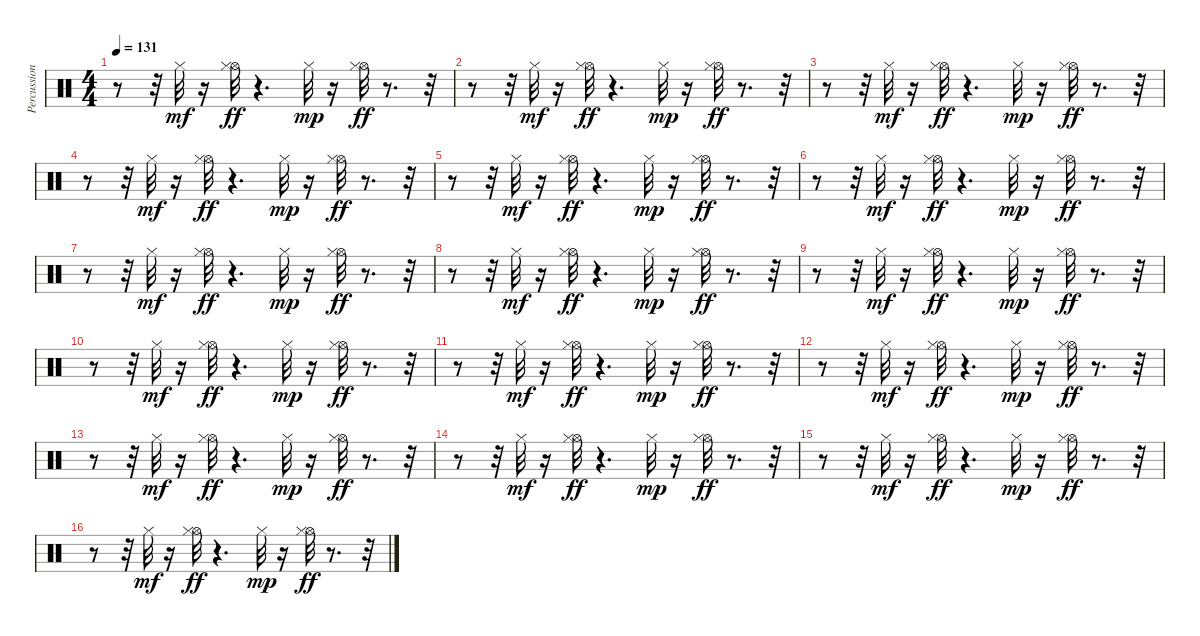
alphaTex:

\track ("Percussion" "Percussion") {instrument percussion}
\staff {score}
\articulation defaults
\ts (4 4)
\tempo 131
\clef neutral
\ks c
r.8{dy ff} r.32 "Hi-Hat (closed)".32{dy mf} r.16 ("Hi-Hat (open)" "Hi-Hat (closed)").32{dy ff} r.4{d} "Hi-Hat (closed)".32{dy mp} r.16 ("Hi-Hat (open)" "Hi-Hat (closed)").32{dy ff} r.8{d} r.32 |
r.8 r.32 "Hi-Hat (closed)".32{dy mf} r.16 ("Hi-Hat (open)" "Hi-Hat (closed)").32{dy ff} r.4{d} "Hi-Hat (closed)".32{dy mp} r.16 ("Hi-Hat (open)" "Hi-Hat (closed)").32{dy ff} r.8{d} r.32 |
r.8 r.32 "Hi-Hat (closed)".32{dy mf} r.16 ("Hi-Hat (open)" "Hi-Hat (closed)").32{dy ff} r.4{d} "Hi-Hat (closed)".32{dy mp} r.16 ("Hi-Hat (open)" "Hi-Hat (closed)").32{dy ff} r.8{d} r.32 |
r.8 r.32 "Hi-Hat (closed)".32{dy mf} r.16 ("Hi-Hat (open)" "Hi-Hat (closed)").32{dy ff} r.4{d} "Hi-Hat (closed)".32{dy mp} r.16 ("Hi-Hat (open)" "Hi-Hat (closed)").32{dy ff} r.8{d} r.32 |
r.8 r.32 "Hi-Hat (closed)".32{dy mf} r.16 ("Hi-Hat (open)" "Hi-Hat (closed)").32{dy ff} r.4{d} "Hi-Hat (closed)".32{dy mp} r.16 ("Hi-Hat (open)" "Hi-Hat (closed)").32{dy ff} r.8{d} r.32 |
r.8 r.32 "Hi-Hat (closed)".32{dy mf} r.16 ("Hi-Hat (open)" "Hi-Hat (closed)").32{dy ff} r.4{d} "Hi-Hat (closed)".32{dy mp} r.16 ("Hi-Hat (open)" "Hi-Hat (closed)").32{dy ff} r.8{d} r.32 |
r.8 r.32 "Hi-Hat (closed)".32{dy mf} r.16 ("Hi-Hat (open)" "Hi-Hat (closed)").32{dy ff} r.4{d} "Hi-Hat (closed)".32{dy mp} r.16 ("Hi-Hat (open)" "Hi-Hat (closed)").32{dy ff} r.8{d} r.32 |
r.8 r.32 "Hi-Hat (closed)".32{dy mf} r.16 ("Hi-Hat (open)" "Hi-Hat (closed)").32{dy ff} r.4{d} "Hi-Hat (closed)".32{dy mp} r.16 ("Hi-Hat (open)" "Hi-Hat (closed)").32{dy ff} r.8{d} r.32 |
r.8 r.32 "Hi-Hat (closed)".32{dy mf} r.16 ("Hi-Hat (open)" "Hi-Hat (closed)").32{dy ff} r.4{d} "Hi-Hat (closed)".32{dy mp} r.16 ("Hi-Hat (open)" "Hi-Hat (closed)").32{dy ff} r.8{d} r.32 |
r.8 r.32 "Hi-Hat (closed)".32{dy mf} r.16 ("Hi-Hat (open)" "Hi-Hat (closed)").32{dy ff} r.4{d} "Hi-Hat (closed)".32{dy mp} r.16 ("Hi-Hat (open)" "Hi-Hat (closed)").32{dy ff} r.8{d} r.32 |
r.8 r.32 "Hi-Hat (closed)".32{dy mf} r.16 ("Hi-Hat (open)" "Hi-Hat (closed)").32{dy ff} r.4{d} "Hi-Hat (closed)".32{dy mp} r.16 ("Hi-Hat (open)" "Hi-Hat (closed)").32{dy ff} r.8{d} r.32 |
r.8 r.32 "Hi-Hat (closed)".32{dy mf} r.16 ("Hi-Hat (open)" "Hi-Hat (closed)").32{dy ff} r.4{d} "Hi-Hat (closed)".32{dy mp} r.16 ("Hi-Hat (open)" "Hi-Hat (closed)").32{dy ff} r.8{d} r.32 |
r.8 r.32 "Hi-Hat (closed)".32{dy mf} r.16 ("Hi-Hat (open)" "Hi-Hat (closed)").32{dy ff} r.4{d} "Hi-Hat (closed)".32{dy mp} r.16 ("Hi-Hat (open)" "Hi-Hat (closed)").32{dy ff} r.8{d} r.32 |
r.8 r.32 "Hi-Hat (closed)".32{dy mf} r.16 ("Hi-Hat (open)" "Hi-Hat (closed)").32{dy ff} r.4{d} "Hi-Hat (closed)".32{dy mp} r.16 ("Hi-Hat (open)" "Hi-Hat (closed)").32{dy ff} r.8{d} r.32 |
r.8 r.32 "Hi-Hat (closed)".32{dy mf} r.16 ("Hi-Hat (open)" "Hi-Hat (closed)").32{dy ff} r.4{d} "Hi-Hat (closed)".32{dy mp} r.16 ("Hi-Hat (open)" "Hi-Hat (closed)").32{dy ff} r.8{d} r.32 |
r.8 r.32 "Hi-Hat (closed)".32{dy mf} r.16 ("Hi-Hat (open)" "Hi-Hat (closed)").32{dy ff} r.4{d} "Hi-Hat (closed)".32{dy mp} r.16 ("Hi-Hat (open)" "Hi-Hat (closed)").32{dy ff} r.8{d} r.32
